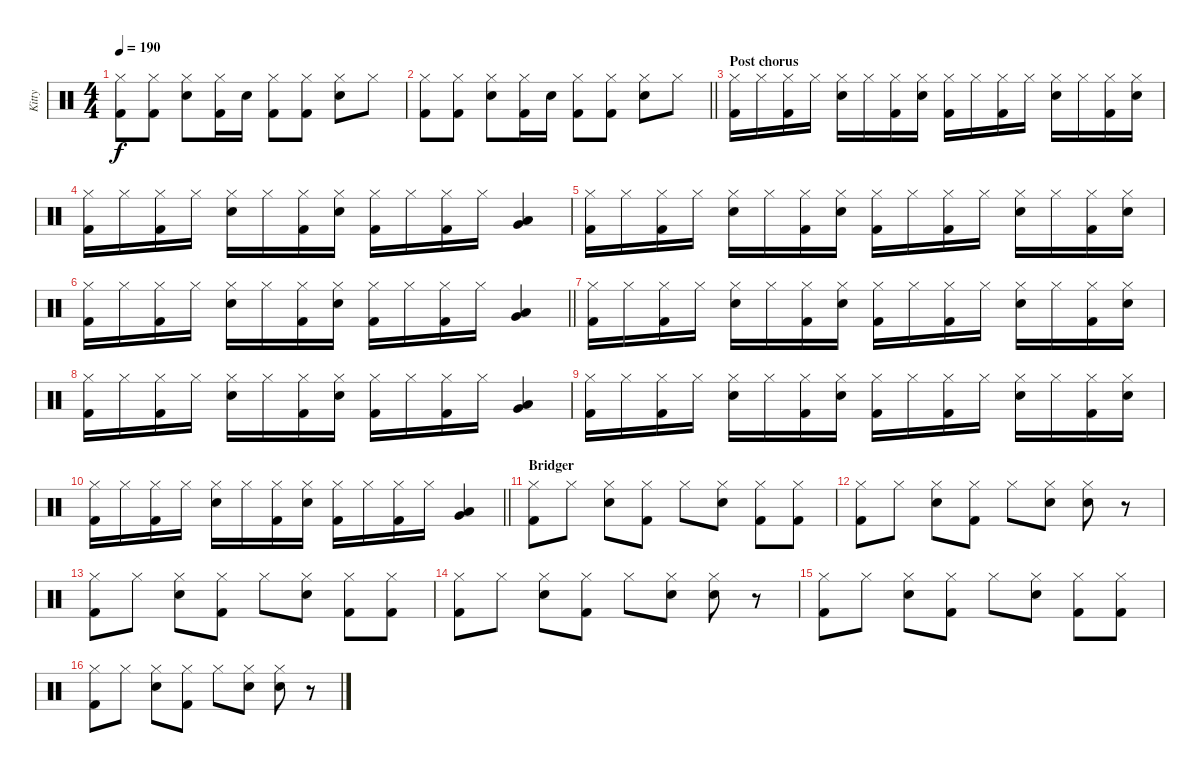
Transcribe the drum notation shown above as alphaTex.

\track ("Kitty" "Kitty") {instrument percussion}
\staff {score}
\articulation defaults
\ts (4 4)
\tempo 190
\clef neutral
\ks c
("Hi-Hat (closed)" "Kick (hit) 2").8{dy f} ("Hi-Hat (closed)" "Kick (hit) 2").8 ("Hi-Hat (closed)" "Snare (hit) 2").8 ("Hi-Hat (closed)" "Kick (hit) 2").16 "Snare (hit) 2".16 ("Hi-Hat (closed)" "Kick (hit) 2").8 ("Hi-Hat (closed)" "Kick (hit) 2").8 ("Hi-Hat (closed)" "Snare (hit) 2").8 "Hi-Hat (closed)".8 |
\barLineRight lightlight
("Hi-Hat (closed)" "Kick (hit) 2").8 ("Hi-Hat (closed)" "Kick (hit) 2").8 ("Hi-Hat (closed)" "Snare (hit) 2").8 ("Hi-Hat (closed)" "Kick (hit) 2").16 "Snare (hit) 2".16 ("Hi-Hat (closed)" "Kick (hit) 2").8 ("Hi-Hat (closed)" "Kick (hit) 2").8 ("Hi-Hat (closed)" "Snare (hit) 2").8 "Hi-Hat (closed)".8 |
\section ("" "Post chorus")
("Hi-Hat (closed)" "Kick (hit) 2").16 "Hi-Hat (closed)".16 ("Hi-Hat (closed)" "Kick (hit) 2").16 "Hi-Hat (closed)".16 ("Hi-Hat (closed)" "Snare (hit) 2").16 "Hi-Hat (closed)".16 ("Hi-Hat (closed)" "Kick (hit) 2").16 ("Hi-Hat (closed)" "Snare (hit) 2").16 ("Hi-Hat (closed)" "Kick (hit) 2").16 "Hi-Hat (closed)".16 ("Hi-Hat (closed)" "Kick (hit) 2").16 "Hi-Hat (closed)".16 ("Hi-Hat (closed)" "Snare (hit) 2").16 "Hi-Hat (closed)".16 ("Hi-Hat (closed)" "Kick (hit) 2").16 ("Hi-Hat (closed)" "Snare (hit) 2").16 |
("Hi-Hat (closed)" "Kick (hit) 2").16 "Hi-Hat (closed)".16 ("Hi-Hat (closed)" "Kick (hit) 2").16 "Hi-Hat (closed)".16 ("Hi-Hat (closed)" "Snare (hit) 2").16 "Hi-Hat (closed)".16 ("Hi-Hat (closed)" "Kick (hit) 2").16 ("Hi-Hat (closed)" "Snare (hit) 2").16 ("Hi-Hat (closed)" "Kick (hit) 2").16 "Hi-Hat (closed)".16 ("Hi-Hat (closed)" "Kick (hit) 2").16 "Hi-Hat (closed)".16 ("Very Low Tom (hit)" "Low Floor Tom (hit)").4 |
("Hi-Hat (closed)" "Kick (hit) 2").16 "Hi-Hat (closed)".16 ("Hi-Hat (closed)" "Kick (hit) 2").16 "Hi-Hat (closed)".16 ("Hi-Hat (closed)" "Snare (hit) 2").16 "Hi-Hat (closed)".16 ("Hi-Hat (closed)" "Kick (hit) 2").16 ("Hi-Hat (closed)" "Snare (hit) 2").16 ("Hi-Hat (closed)" "Kick (hit) 2").16 "Hi-Hat (closed)".16 ("Hi-Hat (closed)" "Kick (hit) 2").16 "Hi-Hat (closed)".16 ("Hi-Hat (closed)" "Snare (hit) 2").16 "Hi-Hat (closed)".16 ("Hi-Hat (closed)" "Kick (hit) 2").16 ("Hi-Hat (closed)" "Snare (hit) 2").16 |
\barLineRight lightlight
("Hi-Hat (closed)" "Kick (hit) 2").16 "Hi-Hat (closed)".16 ("Hi-Hat (closed)" "Kick (hit) 2").16 "Hi-Hat (closed)".16 ("Hi-Hat (closed)" "Snare (hit) 2").16 "Hi-Hat (closed)".16 ("Hi-Hat (closed)" "Kick (hit) 2").16 ("Hi-Hat (closed)" "Snare (hit) 2").16 ("Hi-Hat (closed)" "Kick (hit) 2").16 "Hi-Hat (closed)".16 ("Hi-Hat (closed)" "Kick (hit) 2").16 "Hi-Hat (closed)".16 ("Very Low Tom (hit)" "Low Floor Tom (hit)").4 |
("Hi-Hat (closed)" "Kick (hit) 2").16 "Hi-Hat (closed)".16 ("Hi-Hat (closed)" "Kick (hit) 2").16 "Hi-Hat (closed)".16 ("Hi-Hat (closed)" "Snare (hit) 2").16 "Hi-Hat (closed)".16 ("Hi-Hat (closed)" "Kick (hit) 2").16 ("Hi-Hat (closed)" "Snare (hit) 2").16 ("Hi-Hat (closed)" "Kick (hit) 2").16 "Hi-Hat (closed)".16 ("Hi-Hat (closed)" "Kick (hit) 2").16 "Hi-Hat (closed)".16 ("Hi-Hat (closed)" "Snare (hit) 2").16 "Hi-Hat (closed)".16 ("Hi-Hat (closed)" "Kick (hit) 2").16 ("Hi-Hat (closed)" "Snare (hit) 2").16 |
("Hi-Hat (closed)" "Kick (hit) 2").16 "Hi-Hat (closed)".16 ("Hi-Hat (closed)" "Kick (hit) 2").16 "Hi-Hat (closed)".16 ("Hi-Hat (closed)" "Snare (hit) 2").16 "Hi-Hat (closed)".16 ("Hi-Hat (closed)" "Kick (hit) 2").16 ("Hi-Hat (closed)" "Snare (hit) 2").16 ("Hi-Hat (closed)" "Kick (hit) 2").16 "Hi-Hat (closed)".16 ("Hi-Hat (closed)" "Kick (hit) 2").16 "Hi-Hat (closed)".16 ("Very Low Tom (hit)" "Low Floor Tom (hit)").4 |
("Hi-Hat (closed)" "Kick (hit) 2").16 "Hi-Hat (closed)".16 ("Hi-Hat (closed)" "Kick (hit) 2").16 "Hi-Hat (closed)".16 ("Hi-Hat (closed)" "Snare (hit) 2").16 "Hi-Hat (closed)".16 ("Hi-Hat (closed)" "Kick (hit) 2").16 ("Hi-Hat (closed)" "Snare (hit) 2").16 ("Hi-Hat (closed)" "Kick (hit) 2").16 "Hi-Hat (closed)".16 ("Hi-Hat (closed)" "Kick (hit) 2").16 "Hi-Hat (closed)".16 ("Hi-Hat (closed)" "Snare (hit) 2").16 "Hi-Hat (closed)".16 ("Hi-Hat (closed)" "Kick (hit) 2").16 ("Hi-Hat (closed)" "Snare (hit) 2").16 |
\barLineRight lightlight
("Hi-Hat (closed)" "Kick (hit) 2").16 "Hi-Hat (closed)".16 ("Hi-Hat (closed)" "Kick (hit) 2").16 "Hi-Hat (closed)".16 ("Hi-Hat (closed)" "Snare (hit) 2").16 "Hi-Hat (closed)".16 ("Hi-Hat (closed)" "Kick (hit) 2").16 ("Hi-Hat (closed)" "Snare (hit) 2").16 ("Hi-Hat (closed)" "Kick (hit) 2").16 "Hi-Hat (closed)".16 ("Hi-Hat (closed)" "Kick (hit) 2").16 "Hi-Hat (closed)".16 ("Very Low Tom (hit)" "Low Floor Tom (hit)").4 |
\section ("" "Bridger")
("Hi-Hat (closed)" "Kick (hit) 2").8 "Hi-Hat (closed)".8 ("Hi-Hat (closed)" "Snare (hit) 2").8 ("Hi-Hat (closed)" "Kick (hit) 2").8 "Hi-Hat (closed)".8 ("Hi-Hat (closed)" "Snare (hit) 2").8 ("Hi-Hat (closed)" "Kick (hit) 2").8 ("Hi-Hat (closed)" "Kick (hit) 2").8 |
("Hi-Hat (closed)" "Kick (hit) 2").8 "Hi-Hat (closed)".8 ("Hi-Hat (closed)" "Snare (hit) 2").8 ("Hi-Hat (closed)" "Kick (hit) 2").8 "Hi-Hat (closed)".8 ("Hi-Hat (closed)" "Snare (hit) 2").8 ("Hi-Hat (closed)" "Snare (hit) 2").8 r.8 |
("Hi-Hat (closed)" "Kick (hit) 2").8 "Hi-Hat (closed)".8 ("Hi-Hat (closed)" "Snare (hit) 2").8 ("Hi-Hat (closed)" "Kick (hit) 2").8 "Hi-Hat (closed)".8 ("Hi-Hat (closed)" "Snare (hit) 2").8 ("Hi-Hat (closed)" "Kick (hit) 2").8 ("Hi-Hat (closed)" "Kick (hit) 2").8 |
("Hi-Hat (closed)" "Kick (hit) 2").8 "Hi-Hat (closed)".8 ("Hi-Hat (closed)" "Snare (hit) 2").8 ("Hi-Hat (closed)" "Kick (hit) 2").8 "Hi-Hat (closed)".8 ("Hi-Hat (closed)" "Snare (hit) 2").8 ("Hi-Hat (closed)" "Snare (hit) 2").8 r.8 |
("Hi-Hat (closed)" "Kick (hit) 2").8 "Hi-Hat (closed)".8 ("Hi-Hat (closed)" "Snare (hit) 2").8 ("Hi-Hat (closed)" "Kick (hit) 2").8 "Hi-Hat (closed)".8 ("Hi-Hat (closed)" "Snare (hit) 2").8 ("Hi-Hat (closed)" "Kick (hit) 2").8 ("Hi-Hat (closed)" "Kick (hit) 2").8 |
("Hi-Hat (closed)" "Kick (hit) 2").8 "Hi-Hat (closed)".8 ("Hi-Hat (closed)" "Snare (hit) 2").8 ("Hi-Hat (closed)" "Kick (hit) 2").8 "Hi-Hat (closed)".8 ("Hi-Hat (closed)" "Snare (hit) 2").8 ("Hi-Hat (closed)" "Snare (hit) 2").8 r.8
